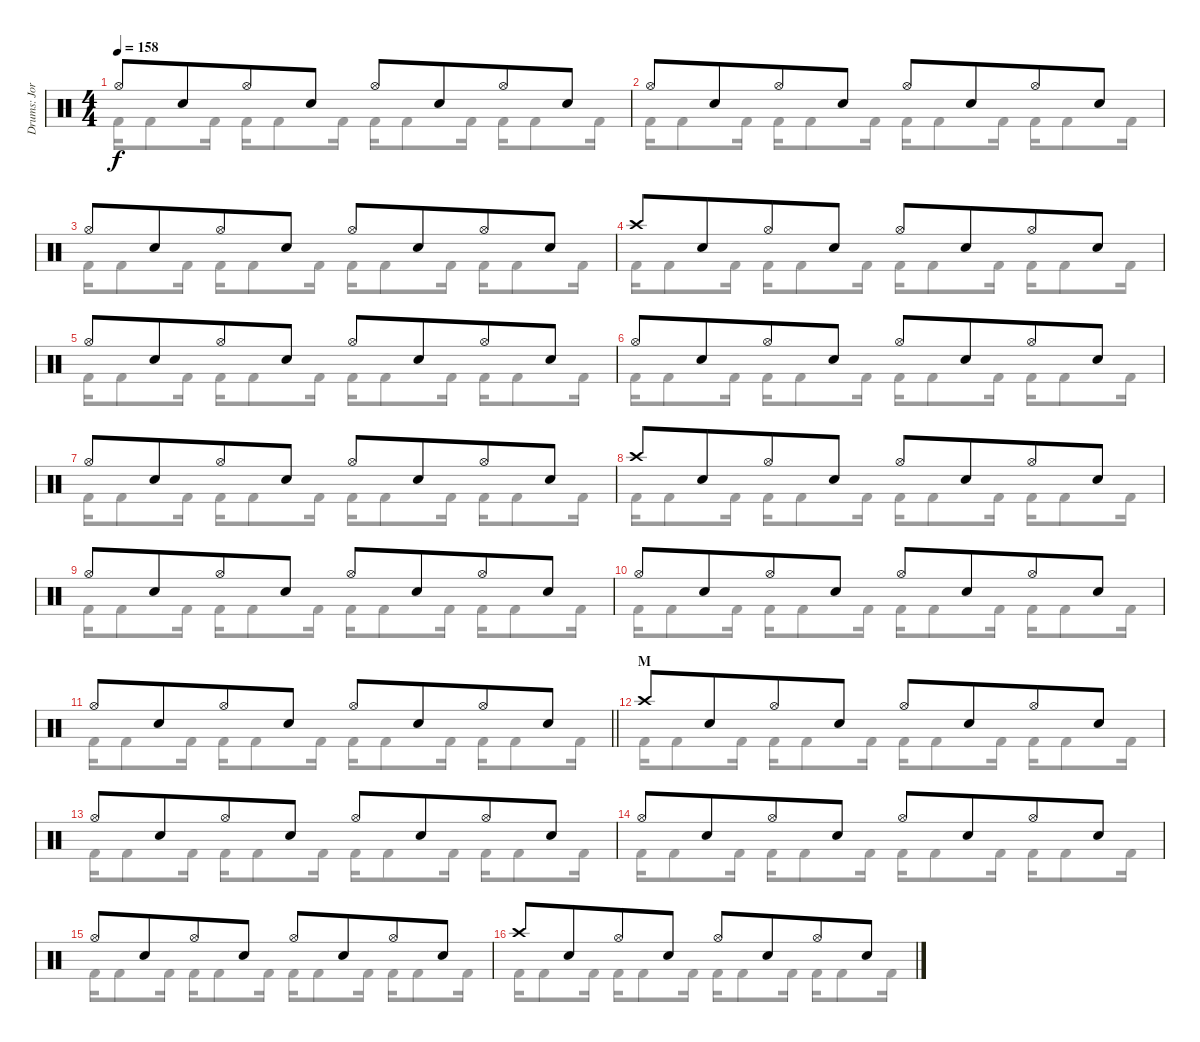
\track ("Drums: Jorg" "Drums: Jor") {instrument percussion}
\staff {score}
\articulation defaults
\voice
\ts (4 4)
\tempo 158
\clef neutral
\ks c "Hi-Hat (open)".8{dy f} "Snare (hit) 2".8{beam merge} "Hi-Hat (open)".8 "Snare (hit) 2".8 "Hi-Hat (open)".8 "Snare (hit) 2".8{beam merge} "Hi-Hat (open)".8 "Snare (hit) 2".8
|
"Hi-Hat (open)".8 "Snare (hit) 2".8{beam merge} "Hi-Hat (open)".8 "Snare (hit) 2".8 "Hi-Hat (open)".8 "Snare (hit) 2".8{beam merge} "Hi-Hat (open)".8 "Snare (hit) 2".8 |
"Hi-Hat (open)".8 "Snare (hit) 2".8{beam merge} "Hi-Hat (open)".8 "Snare (hit) 2".8 "Hi-Hat (open)".8 "Snare (hit) 2".8{beam merge} "Hi-Hat (open)".8 "Snare (hit) 2".8 |
"Crash high (hit)".8 "Snare (hit) 2".8{beam merge} "Hi-Hat (open)".8 "Snare (hit) 2".8 "Hi-Hat (open)".8 "Snare (hit) 2".8{beam merge} "Hi-Hat (open)".8 "Snare (hit) 2".8 |
"Hi-Hat (open)".8 "Snare (hit) 2".8{beam merge} "Hi-Hat (open)".8 "Snare (hit) 2".8 "Hi-Hat (open)".8 "Snare (hit) 2".8{beam merge} "Hi-Hat (open)".8 "Snare (hit) 2".8 |
"Hi-Hat (open)".8 "Snare (hit) 2".8{beam merge} "Hi-Hat (open)".8 "Snare (hit) 2".8 "Hi-Hat (open)".8 "Snare (hit) 2".8{beam merge} "Hi-Hat (open)".8 "Snare (hit) 2".8 |
"Hi-Hat (open)".8 "Snare (hit) 2".8{beam merge} "Hi-Hat (open)".8 "Snare (hit) 2".8 "Hi-Hat (open)".8 "Snare (hit) 2".8{beam merge} "Hi-Hat (open)".8 "Snare (hit) 2".8 |
"Crash high (hit)".8 "Snare (hit) 2".8{beam merge} "Hi-Hat (open)".8 "Snare (hit) 2".8 "Hi-Hat (open)".8 "Snare (hit) 2".8{beam merge} "Hi-Hat (open)".8 "Snare (hit) 2".8 |
"Hi-Hat (open)".8 "Snare (hit) 2".8{beam merge} "Hi-Hat (open)".8 "Snare (hit) 2".8 "Hi-Hat (open)".8 "Snare (hit) 2".8{beam merge} "Hi-Hat (open)".8 "Snare (hit) 2".8 |
"Hi-Hat (open)".8 "Snare (hit) 2".8{beam merge} "Hi-Hat (open)".8 "Snare (hit) 2".8 "Hi-Hat (open)".8 "Snare (hit) 2".8{beam merge} "Hi-Hat (open)".8 "Snare (hit) 2".8 |
\barLineRight lightlight "Hi-Hat (open)".8 "Snare (hit) 2".8{beam merge} "Hi-Hat (open)".8 "Snare (hit) 2".8 "Hi-Hat (open)".8 "Snare (hit) 2".8{beam merge} "Hi-Hat (open)".8 "Snare (hit) 2".8
|
\section ("" "M")
"Crash high (hit)".8 "Snare (hit) 2".8{beam merge} "Hi-Hat (open)".8 "Snare (hit) 2".8 "Hi-Hat (open)".8 "Snare (hit) 2".8{beam merge} "Hi-Hat (open)".8 "Snare (hit) 2".8 |
"Hi-Hat (open)".8 "Snare (hit) 2".8{beam merge} "Hi-Hat (open)".8 "Snare (hit) 2".8 "Hi-Hat (open)".8 "Snare (hit) 2".8{beam merge} "Hi-Hat (open)".8 "Snare (hit) 2".8 |
"Hi-Hat (open)".8 "Snare (hit) 2".8{beam merge} "Hi-Hat (open)".8 "Snare (hit) 2".8 "Hi-Hat (open)".8 "Snare (hit) 2".8{beam merge} "Hi-Hat (open)".8 "Snare (hit) 2".8 |
"Hi-Hat (open)".8 "Snare (hit) 2".8{beam merge} "Hi-Hat (open)".8 "Snare (hit) 2".8 "Hi-Hat (open)".8 "Snare (hit) 2".8{beam merge} "Hi-Hat (open)".8 "Snare (hit) 2".8 |
"Crash high (hit)".8 "Snare (hit) 2".8{beam merge} "Hi-Hat (open)".8 "Snare (hit) 2".8 "Hi-Hat (open)".8 "Snare (hit) 2".8{beam merge} "Hi-Hat (open)".8 "Snare (hit) 2".8
\voice
\clef neutral
\ottava regular
\simile none
\ks c "Kick (hit) 2".16{dy f} "Kick (hit) 2".8 "Kick (hit) 2".16 "Kick (hit) 2".16 "Kick (hit) 2".8 "Kick (hit) 2".16 "Kick (hit) 2".16 "Kick (hit) 2".8 "Kick (hit) 2".16 "Kick (hit) 2".16 "Kick (hit) 2".8 "Kick (hit) 2".16
|
"Kick (hit) 2".16 "Kick (hit) 2".8 "Kick (hit) 2".16 "Kick (hit) 2".16 "Kick (hit) 2".8 "Kick (hit) 2".16 "Kick (hit) 2".16 "Kick (hit) 2".8 "Kick (hit) 2".16 "Kick (hit) 2".16 "Kick (hit) 2".8 "Kick (hit) 2".16 |
"Kick (hit) 2".16 "Kick (hit) 2".8 "Kick (hit) 2".16 "Kick (hit) 2".16 "Kick (hit) 2".8 "Kick (hit) 2".16 "Kick (hit) 2".16 "Kick (hit) 2".8 "Kick (hit) 2".16 "Kick (hit) 2".16 "Kick (hit) 2".8 "Kick (hit) 2".16 |
"Kick (hit) 2".16 "Kick (hit) 2".8 "Kick (hit) 2".16 "Kick (hit) 2".16 "Kick (hit) 2".8 "Kick (hit) 2".16 "Kick (hit) 2".16 "Kick (hit) 2".8 "Kick (hit) 2".16 "Kick (hit) 2".16 "Kick (hit) 2".8 "Kick (hit) 2".16 |
"Kick (hit) 2".16 "Kick (hit) 2".8 "Kick (hit) 2".16 "Kick (hit) 2".16 "Kick (hit) 2".8 "Kick (hit) 2".16 "Kick (hit) 2".16 "Kick (hit) 2".8 "Kick (hit) 2".16 "Kick (hit) 2".16 "Kick (hit) 2".8 "Kick (hit) 2".16 |
"Kick (hit) 2".16 "Kick (hit) 2".8 "Kick (hit) 2".16 "Kick (hit) 2".16 "Kick (hit) 2".8 "Kick (hit) 2".16 "Kick (hit) 2".16 "Kick (hit) 2".8 "Kick (hit) 2".16 "Kick (hit) 2".16 "Kick (hit) 2".8 "Kick (hit) 2".16 |
"Kick (hit) 2".16 "Kick (hit) 2".8 "Kick (hit) 2".16 "Kick (hit) 2".16 "Kick (hit) 2".8 "Kick (hit) 2".16 "Kick (hit) 2".16 "Kick (hit) 2".8 "Kick (hit) 2".16 "Kick (hit) 2".16 "Kick (hit) 2".8 "Kick (hit) 2".16 |
"Kick (hit) 2".16 "Kick (hit) 2".8 "Kick (hit) 2".16 "Kick (hit) 2".16 "Kick (hit) 2".8 "Kick (hit) 2".16 "Kick (hit) 2".16 "Kick (hit) 2".8 "Kick (hit) 2".16 "Kick (hit) 2".16 "Kick (hit) 2".8 "Kick (hit) 2".16 |
"Kick (hit) 2".16 "Kick (hit) 2".8 "Kick (hit) 2".16 "Kick (hit) 2".16 "Kick (hit) 2".8 "Kick (hit) 2".16 "Kick (hit) 2".16 "Kick (hit) 2".8 "Kick (hit) 2".16 "Kick (hit) 2".16 "Kick (hit) 2".8 "Kick (hit) 2".16 |
"Kick (hit) 2".16 "Kick (hit) 2".8 "Kick (hit) 2".16 "Kick (hit) 2".16 "Kick (hit) 2".8 "Kick (hit) 2".16 "Kick (hit) 2".16 "Kick (hit) 2".8 "Kick (hit) 2".16 "Kick (hit) 2".16 "Kick (hit) 2".8 "Kick (hit) 2".16 |
\barLineRight lightlight "Kick (hit) 2".16 "Kick (hit) 2".8 "Kick (hit) 2".16 "Kick (hit) 2".16 "Kick (hit) 2".8 "Kick (hit) 2".16 "Kick (hit) 2".16 "Kick (hit) 2".8 "Kick (hit) 2".16 "Kick (hit) 2".16 "Kick (hit) 2".8 "Kick (hit) 2".16
|
"Kick (hit) 2".16 "Kick (hit) 2".8 "Kick (hit) 2".16 "Kick (hit) 2".16 "Kick (hit) 2".8 "Kick (hit) 2".16 "Kick (hit) 2".16 "Kick (hit) 2".8 "Kick (hit) 2".16 "Kick (hit) 2".16 "Kick (hit) 2".8 "Kick (hit) 2".16 |
"Kick (hit) 2".16 "Kick (hit) 2".8 "Kick (hit) 2".16 "Kick (hit) 2".16 "Kick (hit) 2".8 "Kick (hit) 2".16 "Kick (hit) 2".16 "Kick (hit) 2".8 "Kick (hit) 2".16 "Kick (hit) 2".16 "Kick (hit) 2".8 "Kick (hit) 2".16 |
"Kick (hit) 2".16 "Kick (hit) 2".8 "Kick (hit) 2".16 "Kick (hit) 2".16 "Kick (hit) 2".8 "Kick (hit) 2".16 "Kick (hit) 2".16 "Kick (hit) 2".8 "Kick (hit) 2".16 "Kick (hit) 2".16 "Kick (hit) 2".8 "Kick (hit) 2".16 |
"Kick (hit) 2".16 "Kick (hit) 2".8 "Kick (hit) 2".16 "Kick (hit) 2".16 "Kick (hit) 2".8 "Kick (hit) 2".16 "Kick (hit) 2".16 "Kick (hit) 2".8 "Kick (hit) 2".16 "Kick (hit) 2".16 "Kick (hit) 2".8 "Kick (hit) 2".16 |
"Kick (hit) 2".16 "Kick (hit) 2".8 "Kick (hit) 2".16 "Kick (hit) 2".16 "Kick (hit) 2".8 "Kick (hit) 2".16 "Kick (hit) 2".16 "Kick (hit) 2".8 "Kick (hit) 2".16 "Kick (hit) 2".16 "Kick (hit) 2".8 "Kick (hit) 2".16
